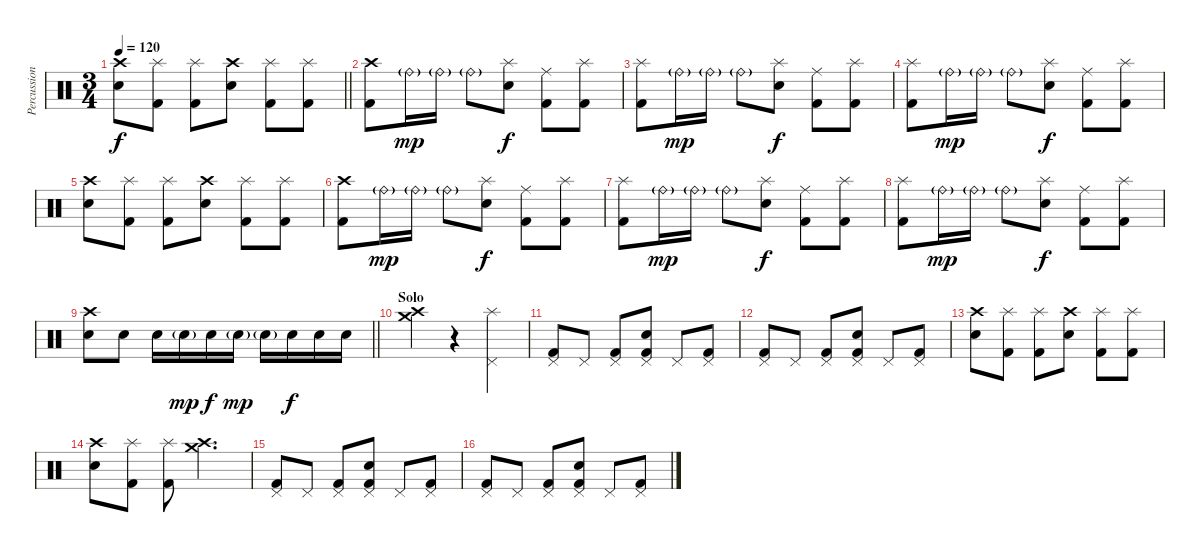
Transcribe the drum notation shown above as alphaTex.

\track ("Percussion" "Percussion") {instrument percussion}
\staff {score}
\articulation defaults
\ts (3 4)
\tempo 120
\clef neutral
\barLineRight lightlight
\ks c
("Crash high (hit)" "Electric Snare (hit)").8{dy f} ("Splash (hit)" "Kick (hit) 2").8 ("Splash (hit)" "Kick (hit) 2").8 ("Crash high (hit)" "Electric Snare (hit)").8 ("Splash (hit)" "Kick (hit) 2").8 ("Splash (hit)" "Kick (hit) 2").8 |
("Crash high (hit)" "Kick (hit) 2").8 "Ride (bell)"{g}.16{dy mp} "Ride (bell)"{g}.16 "Ride (bell)"{g}.8 ("Splash (hit)" "Electric Snare (hit)").8{dy f} ("Ride (middle)" "Kick (hit) 2").8 ("Splash (hit)" "Kick (hit) 2").8 |
("Splash (hit)" "Kick (hit) 2").8 "Ride (bell)"{g}.16{dy mp} "Ride (bell)"{g}.16 "Ride (bell)"{g}.8 ("Splash (hit)" "Electric Snare (hit)").8{dy f} ("Ride (middle)" "Kick (hit) 2").8 ("Splash (hit)" "Kick (hit) 2").8 |
("Splash (hit)" "Kick (hit) 2").8 "Ride (bell)"{g}.16{dy mp} "Ride (bell)"{g}.16 "Ride (bell)"{g}.8 ("Splash (hit)" "Electric Snare (hit)").8{dy f} ("Ride (middle)" "Kick (hit) 2").8 ("Splash (hit)" "Kick (hit) 2").8 |
("Crash high (hit)" "Electric Snare (hit)").8 ("Splash (hit)" "Kick (hit) 2").8 ("Splash (hit)" "Kick (hit) 2").8 ("Crash high (hit)" "Electric Snare (hit)").8 ("Splash (hit)" "Kick (hit) 2").8 ("Splash (hit)" "Kick (hit) 2").8 |
("Crash high (hit)" "Kick (hit) 2").8 "Ride (bell)"{g}.16{dy mp} "Ride (bell)"{g}.16 "Ride (bell)"{g}.8 ("Splash (hit)" "Electric Snare (hit)").8{dy f} ("Ride (middle)" "Kick (hit) 2").8 ("Splash (hit)" "Kick (hit) 2").8 |
("Splash (hit)" "Kick (hit) 2").8 "Ride (bell)"{g}.16{dy mp} "Ride (bell)"{g}.16 "Ride (bell)"{g}.8 ("Splash (hit)" "Electric Snare (hit)").8{dy f} ("Ride (middle)" "Kick (hit) 2").8 ("Splash (hit)" "Kick (hit) 2").8 |
("Splash (hit)" "Kick (hit) 2").8 "Ride (bell)"{g}.16{dy mp} "Ride (bell)"{g}.16 "Ride (bell)"{g}.8 ("Splash (hit)" "Electric Snare (hit)").8{dy f} ("Ride (middle)" "Kick (hit) 2").8 ("Splash (hit)" "Kick (hit) 2").8 |
\barLineRight lightlight
("Crash high (hit)" "Electric Snare (hit)").8 "Electric Snare (hit)".8 "Electric Snare (hit)".16 "Electric Snare (hit)"{g}.16{dy mp} "Electric Snare (hit)".16{dy f} "Electric Snare (hit)"{g}.16{dy mp} "Electric Snare (hit)"{g}.16 "Electric Snare (hit)".16{dy f} "Electric Snare (hit)".16 "Electric Snare (hit)".16 |
\section ("" "Solo")
("Crash high (hit)" "Crash medium (hit)").4 r.4 ("Splash (hit)" "Pedal Hi-Hat (hit)").4 |
("Pedal Hi-Hat (hit)" "Kick (hit) 2").8 "Pedal Hi-Hat (hit)".8 ("Pedal Hi-Hat (hit)" "Kick (hit) 2").8 ("Pedal Hi-Hat (hit)" "Electric Snare (hit)" "Kick (hit) 2").8 "Pedal Hi-Hat (hit)".8 ("Pedal Hi-Hat (hit)" "Kick (hit) 2").8 |
("Pedal Hi-Hat (hit)" "Kick (hit) 2").8 "Pedal Hi-Hat (hit)".8 ("Pedal Hi-Hat (hit)" "Kick (hit) 2").8 ("Pedal Hi-Hat (hit)" "Electric Snare (hit)" "Kick (hit) 2").8 "Pedal Hi-Hat (hit)".8 ("Pedal Hi-Hat (hit)" "Kick (hit) 2").8 |
("Crash high (hit)" "Electric Snare (hit)").8 ("Splash (hit)" "Kick (hit) 2").8 ("Splash (hit)" "Kick (hit) 2").8 ("Crash high (hit)" "Electric Snare (hit)").8 ("Splash (hit)" "Kick (hit) 2").8 ("Splash (hit)" "Kick (hit) 2").8 |
("Crash high (hit)" "Electric Snare (hit)").8 ("Splash (hit)" "Kick (hit) 2").8 ("Splash (hit)" "Kick (hit) 2").8 ("Crash high (hit)" "Crash medium (hit)").4{d} |
("Pedal Hi-Hat (hit)" "Kick (hit) 2").8 "Pedal Hi-Hat (hit)".8 ("Pedal Hi-Hat (hit)" "Kick (hit) 2").8 ("Pedal Hi-Hat (hit)" "Electric Snare (hit)" "Kick (hit) 2").8 "Pedal Hi-Hat (hit)".8 ("Pedal Hi-Hat (hit)" "Kick (hit) 2").8 |
("Pedal Hi-Hat (hit)" "Kick (hit) 2").8 "Pedal Hi-Hat (hit)".8 ("Pedal Hi-Hat (hit)" "Kick (hit) 2").8 ("Pedal Hi-Hat (hit)" "Electric Snare (hit)" "Kick (hit) 2").8 "Pedal Hi-Hat (hit)".8 ("Pedal Hi-Hat (hit)" "Kick (hit) 2").8
